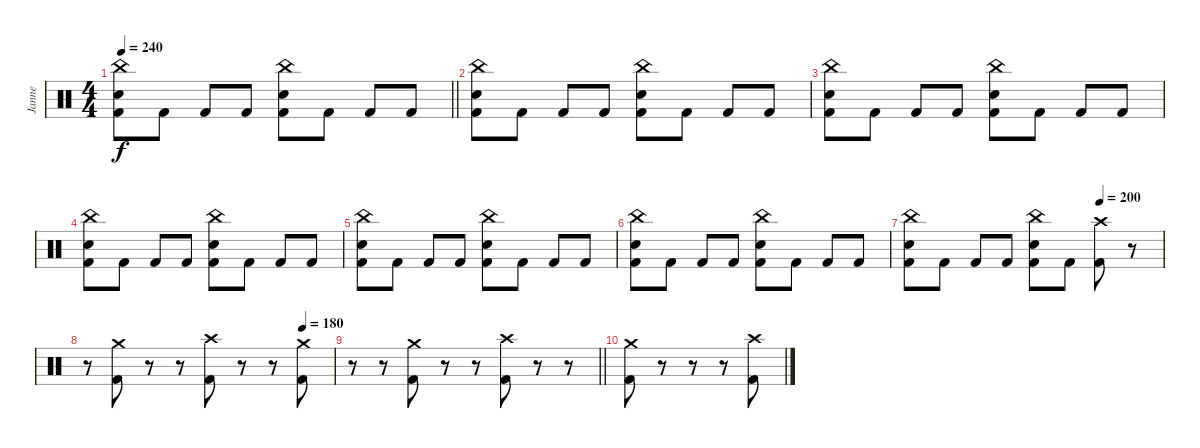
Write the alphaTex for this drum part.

\track ("Janne" "Janne") {instrument percussion}
\staff {score}
\articulation defaults
\ts (4 4)
\tempo 240
\clef neutral
\barLineRight lightlight
\ks c
("China (hit)" "Electric Snare (hit)" "Kick (hit) 2").8{dy f} "Kick (hit) 2".8 "Kick (hit) 2".8 "Kick (hit) 2".8 ("China (hit)" "Electric Snare (hit)" "Kick (hit) 2").8 "Kick (hit) 2".8 "Kick (hit) 2".8 "Kick (hit) 2".8 |
("China (hit)" "Electric Snare (hit)" "Kick (hit) 2").8 "Kick (hit) 2".8 "Kick (hit) 2".8 "Kick (hit) 2".8 ("China (hit)" "Electric Snare (hit)" "Kick (hit) 2").8 "Kick (hit) 2".8 "Kick (hit) 2".8 "Kick (hit) 2".8 |
("China (hit)" "Electric Snare (hit)" "Kick (hit) 2").8 "Kick (hit) 2".8 "Kick (hit) 2".8 "Kick (hit) 2".8 ("China (hit)" "Electric Snare (hit)" "Kick (hit) 2").8 "Kick (hit) 2".8 "Kick (hit) 2".8 "Kick (hit) 2".8 |
("China (hit)" "Electric Snare (hit)" "Kick (hit) 2").8 "Kick (hit) 2".8 "Kick (hit) 2".8 "Kick (hit) 2".8 ("China (hit)" "Electric Snare (hit)" "Kick (hit) 2").8 "Kick (hit) 2".8 "Kick (hit) 2".8 "Kick (hit) 2".8 |
("China (hit)" "Electric Snare (hit)" "Kick (hit) 2").8 "Kick (hit) 2".8 "Kick (hit) 2".8 "Kick (hit) 2".8 ("China (hit)" "Electric Snare (hit)" "Kick (hit) 2").8 "Kick (hit) 2".8 "Kick (hit) 2".8 "Kick (hit) 2".8 |
("China (hit)" "Electric Snare (hit)" "Kick (hit) 2").8 "Kick (hit) 2".8 "Kick (hit) 2".8 "Kick (hit) 2".8 ("China (hit)" "Electric Snare (hit)" "Kick (hit) 2").8 "Kick (hit) 2".8 "Kick (hit) 2".8 "Kick (hit) 2".8 |
\tempo (200 0.75)
("China (hit)" "Electric Snare (hit)" "Kick (hit) 2").8 "Kick (hit) 2".8 "Kick (hit) 2".8 "Kick (hit) 2".8 ("China (hit)" "Electric Snare (hit)" "Kick (hit) 2").8 "Kick (hit) 2".8 ("Crash high (hit)" "Kick (hit) 2").8 r.8 |
\tempo (180 0.875)
r.8 ("Crash medium (hit)" "Kick (hit) 2").8 r.8 r.8 ("Crash high (hit)" "Kick (hit) 2").8 r.8 r.8 ("Crash medium (hit)" "Kick (hit) 2").8 |
\barLineRight lightlight
r.8 r.8 ("Crash medium (hit)" "Kick (hit) 2").8 r.8 r.8 ("Crash high (hit)" "Kick (hit) 2").8 r.8 r.8 |
("Crash medium (hit)" "Kick (hit) 2").8 r.8 r.8 r.8 ("Crash high (hit)" "Kick (hit) 2").8
